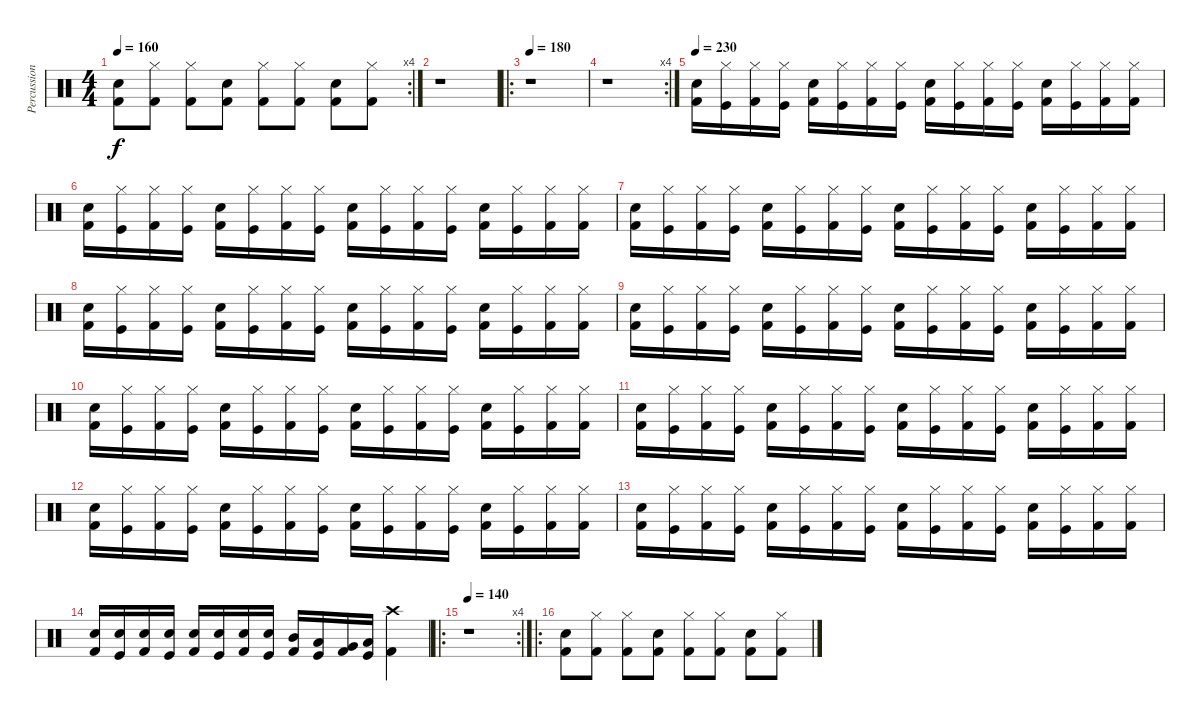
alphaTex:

\track ("Percussion" "Percussion") {instrument percussion}
\staff {score}
\articulation defaults
\rc 4
\ts (4 4)
\tempo 160
\clef neutral
\ks c
("Electric Snare (hit)" "Kick (hit) 2").8{dy f} ("Hi-Hat (closed)" "Kick (hit) 2").8 ("Hi-Hat (closed)" "Kick (hit) 2").8 ("Electric Snare (hit)" "Kick (hit) 2").8 ("Hi-Hat (closed)" "Kick (hit) 2").8 ("Hi-Hat (closed)" "Kick (hit) 2").8 ("Electric Snare (hit)" "Kick (hit) 2").8 ("Hi-Hat (closed)" "Kick (hit) 2").8 |
r.1 |
\ro
\tempo 180
r.1 |
\rc 4
r.1 |
\tempo 230
("Electric Snare (hit)" "Kick (hit) 2").16 ("Hi-Hat (closed)" "Kick (hit)").16 ("Hi-Hat (closed)" "Kick (hit) 2").16 ("Hi-Hat (closed)" "Kick (hit)").16 ("Electric Snare (hit)" "Kick (hit) 2").16 ("Hi-Hat (closed)" "Kick (hit)").16 ("Hi-Hat (closed)" "Kick (hit) 2").16 ("Hi-Hat (closed)" "Kick (hit)").16 ("Electric Snare (hit)" "Kick (hit) 2").16 ("Hi-Hat (closed)" "Kick (hit)").16 ("Hi-Hat (closed)" "Kick (hit) 2").16 ("Hi-Hat (closed)" "Kick (hit)").16 ("Electric Snare (hit)" "Kick (hit) 2").16 ("Hi-Hat (closed)" "Kick (hit)").16 ("Hi-Hat (closed)" "Kick (hit) 2").16 ("Hi-Hat (closed)" "Kick (hit) 2").16 |
("Electric Snare (hit)" "Kick (hit) 2").16 ("Hi-Hat (closed)" "Kick (hit)").16 ("Hi-Hat (closed)" "Kick (hit) 2").16 ("Hi-Hat (closed)" "Kick (hit)").16 ("Electric Snare (hit)" "Kick (hit) 2").16 ("Hi-Hat (closed)" "Kick (hit)").16 ("Hi-Hat (closed)" "Kick (hit) 2").16 ("Hi-Hat (closed)" "Kick (hit)").16 ("Electric Snare (hit)" "Kick (hit) 2").16 ("Hi-Hat (closed)" "Kick (hit)").16 ("Hi-Hat (closed)" "Kick (hit) 2").16 ("Hi-Hat (closed)" "Kick (hit)").16 ("Electric Snare (hit)" "Kick (hit) 2").16 ("Hi-Hat (closed)" "Kick (hit)").16 ("Hi-Hat (closed)" "Kick (hit) 2").16 ("Hi-Hat (closed)" "Kick (hit) 2").16 |
("Electric Snare (hit)" "Kick (hit) 2").16 ("Hi-Hat (closed)" "Kick (hit)").16 ("Hi-Hat (closed)" "Kick (hit) 2").16 ("Hi-Hat (closed)" "Kick (hit)").16 ("Electric Snare (hit)" "Kick (hit) 2").16 ("Hi-Hat (closed)" "Kick (hit)").16 ("Hi-Hat (closed)" "Kick (hit) 2").16 ("Hi-Hat (closed)" "Kick (hit)").16 ("Electric Snare (hit)" "Kick (hit) 2").16 ("Hi-Hat (closed)" "Kick (hit)").16 ("Hi-Hat (closed)" "Kick (hit) 2").16 ("Hi-Hat (closed)" "Kick (hit)").16 ("Electric Snare (hit)" "Kick (hit) 2").16 ("Hi-Hat (closed)" "Kick (hit)").16 ("Hi-Hat (closed)" "Kick (hit) 2").16 ("Hi-Hat (closed)" "Kick (hit) 2").16 |
("Electric Snare (hit)" "Kick (hit) 2").16 ("Hi-Hat (closed)" "Kick (hit)").16 ("Hi-Hat (closed)" "Kick (hit) 2").16 ("Hi-Hat (closed)" "Kick (hit)").16 ("Electric Snare (hit)" "Kick (hit) 2").16 ("Hi-Hat (closed)" "Kick (hit)").16 ("Hi-Hat (closed)" "Kick (hit) 2").16 ("Hi-Hat (closed)" "Kick (hit)").16 ("Electric Snare (hit)" "Kick (hit) 2").16 ("Hi-Hat (closed)" "Kick (hit)").16 ("Hi-Hat (closed)" "Kick (hit) 2").16 ("Hi-Hat (closed)" "Kick (hit)").16 ("Electric Snare (hit)" "Kick (hit) 2").16 ("Hi-Hat (closed)" "Kick (hit)").16 ("Hi-Hat (closed)" "Kick (hit) 2").16 ("Hi-Hat (closed)" "Kick (hit) 2").16 |
("Electric Snare (hit)" "Kick (hit) 2").16 ("Hi-Hat (closed)" "Kick (hit)").16 ("Hi-Hat (closed)" "Kick (hit) 2").16 ("Hi-Hat (closed)" "Kick (hit)").16 ("Electric Snare (hit)" "Kick (hit) 2").16 ("Hi-Hat (closed)" "Kick (hit)").16 ("Hi-Hat (closed)" "Kick (hit) 2").16 ("Hi-Hat (closed)" "Kick (hit)").16 ("Electric Snare (hit)" "Kick (hit) 2").16 ("Hi-Hat (closed)" "Kick (hit)").16 ("Hi-Hat (closed)" "Kick (hit) 2").16 ("Hi-Hat (closed)" "Kick (hit)").16 ("Electric Snare (hit)" "Kick (hit) 2").16 ("Hi-Hat (closed)" "Kick (hit)").16 ("Hi-Hat (closed)" "Kick (hit) 2").16 ("Hi-Hat (closed)" "Kick (hit) 2").16 |
("Electric Snare (hit)" "Kick (hit) 2").16 ("Hi-Hat (closed)" "Kick (hit)").16 ("Hi-Hat (closed)" "Kick (hit) 2").16 ("Hi-Hat (closed)" "Kick (hit)").16 ("Electric Snare (hit)" "Kick (hit) 2").16 ("Hi-Hat (closed)" "Kick (hit)").16 ("Hi-Hat (closed)" "Kick (hit) 2").16 ("Hi-Hat (closed)" "Kick (hit)").16 ("Electric Snare (hit)" "Kick (hit) 2").16 ("Hi-Hat (closed)" "Kick (hit)").16 ("Hi-Hat (closed)" "Kick (hit) 2").16 ("Hi-Hat (closed)" "Kick (hit)").16 ("Electric Snare (hit)" "Kick (hit) 2").16 ("Hi-Hat (closed)" "Kick (hit)").16 ("Hi-Hat (closed)" "Kick (hit) 2").16 ("Hi-Hat (closed)" "Kick (hit) 2").16 |
("Electric Snare (hit)" "Kick (hit) 2").16 ("Hi-Hat (closed)" "Kick (hit)").16 ("Hi-Hat (closed)" "Kick (hit) 2").16 ("Hi-Hat (closed)" "Kick (hit)").16 ("Electric Snare (hit)" "Kick (hit) 2").16 ("Hi-Hat (closed)" "Kick (hit)").16 ("Hi-Hat (closed)" "Kick (hit) 2").16 ("Hi-Hat (closed)" "Kick (hit)").16 ("Electric Snare (hit)" "Kick (hit) 2").16 ("Hi-Hat (closed)" "Kick (hit)").16 ("Hi-Hat (closed)" "Kick (hit) 2").16 ("Hi-Hat (closed)" "Kick (hit)").16 ("Electric Snare (hit)" "Kick (hit) 2").16 ("Hi-Hat (closed)" "Kick (hit)").16 ("Hi-Hat (closed)" "Kick (hit) 2").16 ("Hi-Hat (closed)" "Kick (hit) 2").16 |
("Electric Snare (hit)" "Kick (hit) 2").16 ("Hi-Hat (closed)" "Kick (hit)").16 ("Hi-Hat (closed)" "Kick (hit) 2").16 ("Hi-Hat (closed)" "Kick (hit)").16 ("Electric Snare (hit)" "Kick (hit) 2").16 ("Hi-Hat (closed)" "Kick (hit)").16 ("Hi-Hat (closed)" "Kick (hit) 2").16 ("Hi-Hat (closed)" "Kick (hit)").16 ("Electric Snare (hit)" "Kick (hit) 2").16 ("Hi-Hat (closed)" "Kick (hit)").16 ("Hi-Hat (closed)" "Kick (hit) 2").16 ("Hi-Hat (closed)" "Kick (hit)").16 ("Electric Snare (hit)" "Kick (hit) 2").16 ("Hi-Hat (closed)" "Kick (hit)").16 ("Hi-Hat (closed)" "Kick (hit) 2").16 ("Hi-Hat (closed)" "Kick (hit) 2").16 |
("Electric Snare (hit)" "Kick (hit) 2").16 ("Hi-Hat (closed)" "Kick (hit)").16 ("Hi-Hat (closed)" "Kick (hit) 2").16 ("Hi-Hat (closed)" "Kick (hit)").16 ("Electric Snare (hit)" "Kick (hit) 2").16 ("Hi-Hat (closed)" "Kick (hit)").16 ("Hi-Hat (closed)" "Kick (hit) 2").16 ("Hi-Hat (closed)" "Kick (hit)").16 ("Electric Snare (hit)" "Kick (hit) 2").16 ("Hi-Hat (closed)" "Kick (hit)").16 ("Hi-Hat (closed)" "Kick (hit) 2").16 ("Hi-Hat (closed)" "Kick (hit)").16 ("Electric Snare (hit)" "Kick (hit) 2").16 ("Hi-Hat (closed)" "Kick (hit)").16 ("Hi-Hat (closed)" "Kick (hit) 2").16 ("Hi-Hat (closed)" "Kick (hit) 2").16 |
("Electric Snare (hit)" "Kick (hit) 2").16 ("Electric Snare (hit)" "Kick (hit)").16 ("Electric Snare (hit)" "Kick (hit) 2").16 ("Electric Snare (hit)" "Kick (hit)").16 ("Electric Snare (hit)" "Kick (hit) 2").16 ("Electric Snare (hit)" "Kick (hit)").16 ("Electric Snare (hit)" "Kick (hit) 2").16 ("Electric Snare (hit)" "Kick (hit)").16 ("Mid Tom (hit)" "Kick (hit) 2").16 ("Low Tom (hit)" "Kick (hit)").16 ("Very Low Tom (hit)" "Kick (hit) 2").16 ("Low Floor Tom (hit)" "Kick (hit)").16 ("Crash high (hit)" "Kick (hit) 2").4 |
\ro
\rc 4
\tempo 140
r.1 |
\ro
("Electric Snare (hit)" "Kick (hit) 2").8 ("Hi-Hat (closed)" "Kick (hit) 2").8 ("Hi-Hat (closed)" "Kick (hit) 2").8 ("Electric Snare (hit)" "Kick (hit) 2").8 ("Hi-Hat (closed)" "Kick (hit) 2").8 ("Hi-Hat (closed)" "Kick (hit) 2").8 ("Electric Snare (hit)" "Kick (hit) 2").8 ("Hi-Hat (closed)" "Kick (hit) 2").8
